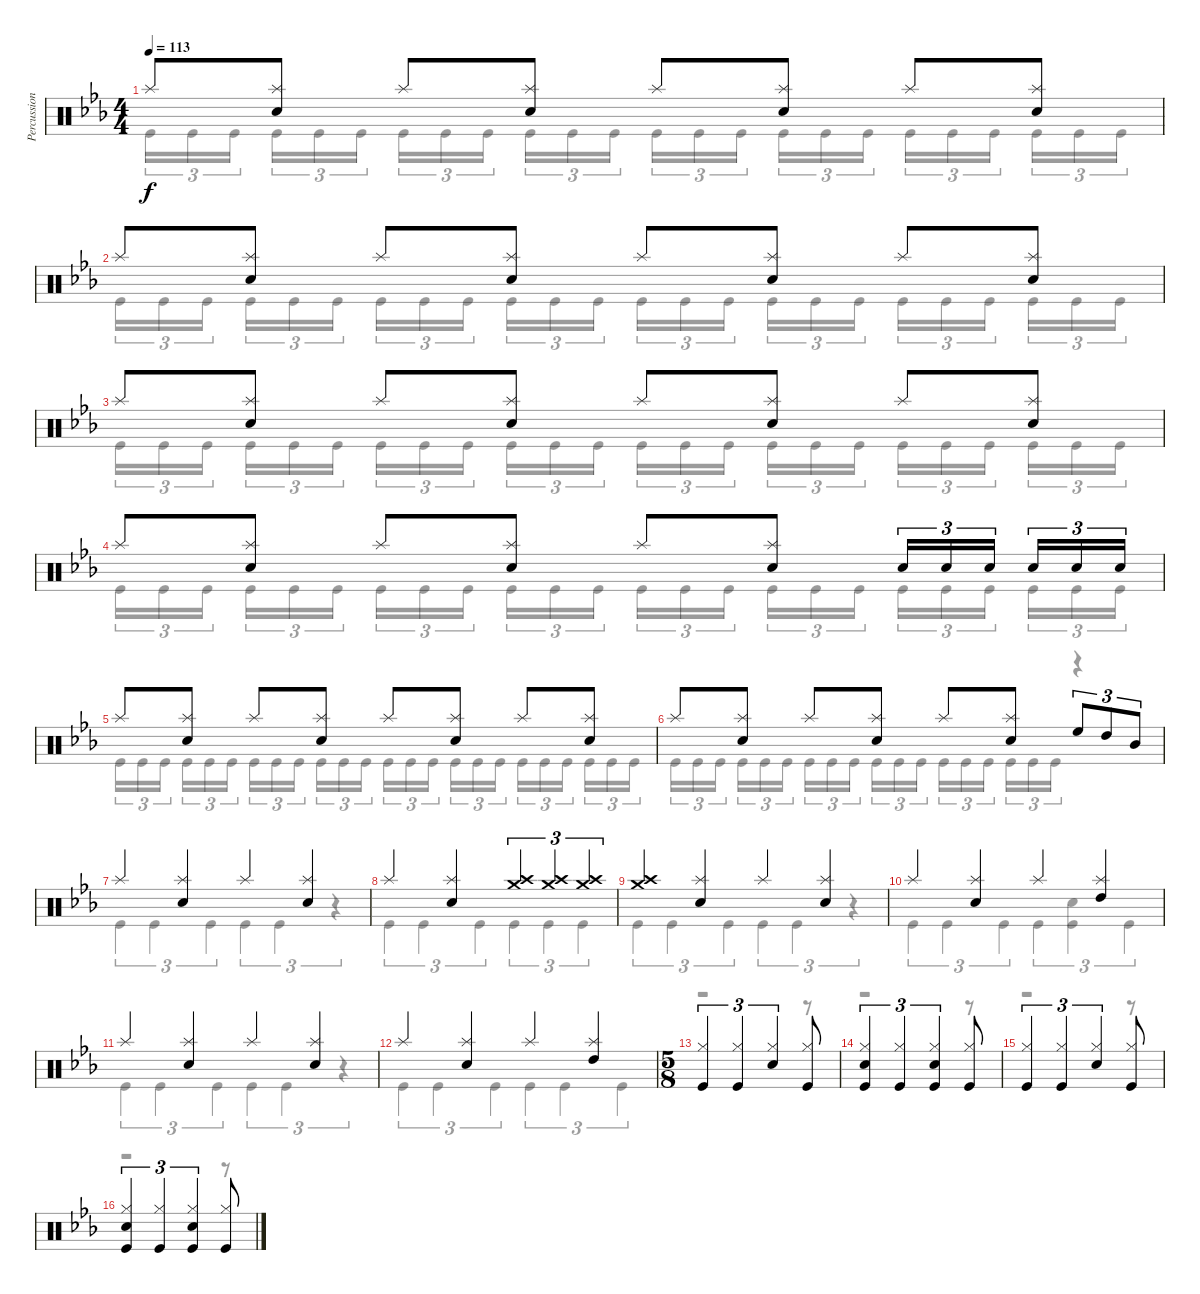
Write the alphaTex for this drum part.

\track ("Percussion" "Percussion") {instrument percussion}
\staff {score}
\articulation defaults
\voice
\ts (4 4)
\tempo 113
\clef neutral
\ks cminor "Splash (hit)".8{dy f}
("Splash (hit)" "Snare (hit) 2").8 "Splash (hit)".8 ("Splash (hit)" "Snare (hit) 2").8 "Splash (hit)".8 ("Splash (hit)" "Snare (hit) 2").8 "Splash (hit)".8 ("Splash (hit)" "Snare (hit) 2").8 |
"Splash (hit)".8 ("Splash (hit)" "Snare (hit) 2").8 "Splash (hit)".8 ("Splash (hit)" "Snare (hit) 2").8 "Splash (hit)".8 ("Splash (hit)" "Snare (hit) 2").8 "Splash (hit)".8 ("Splash (hit)" "Snare (hit) 2").8 |
"Splash (hit)".8 ("Splash (hit)" "Snare (hit) 2").8 "Splash (hit)".8 ("Splash (hit)" "Snare (hit) 2").8 "Splash (hit)".8 ("Splash (hit)" "Snare (hit) 2").8 "Splash (hit)".8 ("Splash (hit)" "Snare (hit) 2").8 |
"Splash (hit)".8 ("Splash (hit)" "Snare (hit) 2").8 "Splash (hit)".8 ("Splash (hit)" "Snare (hit) 2").8 "Splash (hit)".8 ("Splash (hit)" "Snare (hit) 2").8 "Snare (hit) 2".16{tu (3 2)} "Snare (hit) 2".16{tu (3 2)} "Snare (hit) 2".16{tu (3 2) beam splitsecondary} "Snare (hit) 2".16{tu (3 2)} "Snare (hit) 2".16{tu (3 2)} "Snare (hit) 2".16{tu (3 2)} |
"Splash (hit)".8 ("Splash (hit)" "Snare (hit) 2").8 "Splash (hit)".8 ("Splash (hit)" "Snare (hit) 2").8 "Splash (hit)".8 ("Splash (hit)" "Snare (hit) 2").8 "Splash (hit)".8 ("Splash (hit)" "Snare (hit) 2").8 |
"Splash (hit)".8 ("Splash (hit)" "Snare (hit) 2").8 "Splash (hit)".8 ("Splash (hit)" "Snare (hit) 2").8 "Splash (hit)".8 ("Splash (hit)" "Snare (hit) 2").8 "High Floor Tom (hit)".8{tu (3 2)} "High Tom (hit)".8{tu (3 2)} "Mid Tom (hit)".8{tu (3 2)} |
"Splash (hit)".4 ("Splash (hit)" "Snare (hit) 2").4 "Splash (hit)".4 ("Splash (hit)" "Snare (hit) 2").4 |
"Splash (hit)".4 ("Splash (hit)" "Snare (hit) 2").4 ("Crash medium (hit)" "Crash high (hit)").4{tu (3 2)} ("Crash medium (hit)" "Crash high (hit)").4{tu (3 2)} ("Crash medium (hit)" "Crash high (hit)").4{tu (3 2)} |
("Crash medium (hit)" "Crash high (hit)").4 ("Splash (hit)" "Snare (hit) 2").4 "Splash (hit)".4 ("Splash (hit)" "Snare (hit) 2").4 |
"Splash (hit)".4 ("Splash (hit)" "Snare (hit) 2").4 "Splash (hit)".4 ("Splash (hit)" "High Tom (hit)").4 |
"Splash (hit)".4 ("Splash (hit)" "Snare (hit) 2").4 "Splash (hit)".4 ("Splash (hit)" "Snare (hit) 2").4 |
"Splash (hit)".4 ("Splash (hit)" "Snare (hit) 2").4 "Splash (hit)".4 ("Splash (hit)" "High Tom (hit)").4 |
\ts (5 8)
("Hi-Hat (closed)" "Kick (hit)").4{tu (3 2)} ("Hi-Hat (closed)" "Kick (hit)").4{tu (3 2)} ("Hi-Hat (closed)" "Snare (hit) 2").4{tu (3 2)} ("Hi-Hat (closed)" "Kick (hit)").8 |
("Hi-Hat (closed)" "Snare (hit) 2" "Kick (hit)").4{tu (3 2)} ("Hi-Hat (closed)" "Kick (hit)").4{tu (3 2)} ("Hi-Hat (closed)" "Snare (hit) 2" "Kick (hit)").4{tu (3 2)} ("Hi-Hat (closed)" "Kick (hit)").8 |
("Hi-Hat (closed)" "Kick (hit)").4{tu (3 2)} ("Hi-Hat (closed)" "Kick (hit)").4{tu (3 2)} ("Hi-Hat (closed)" "Snare (hit) 2").4{tu (3 2)} ("Hi-Hat (closed)" "Kick (hit)").8 |
("Hi-Hat (closed)" "Snare (hit) 2" "Kick (hit)").4{tu (3 2)} ("Hi-Hat (closed)" "Kick (hit)").4{tu (3 2)} ("Hi-Hat (closed)" "Snare (hit) 2" "Kick (hit)").4{tu (3 2)} ("Hi-Hat (closed)" "Kick (hit)").8
\voice
\clef neutral
\ottava regular
\simile none
\ks cminor "Kick (hit)".16{tu (3 2) dy f} "Kick (hit)".16{tu (3 2)} "Kick (hit)".16{tu (3 2) beam splitsecondary} "Kick (hit)".16{tu (3 2)} "Kick (hit)".16{tu (3 2)} "Kick (hit)".16{tu (3 2)} "Kick (hit)".16{tu (3 2)} "Kick (hit)".16{tu (3 2)} "Kick (hit)".16{tu (3 2) beam splitsecondary} "Kick (hit)".16{tu (3 2)} "Kick (hit)".16{tu (3 2)} "Kick (hit)".16{tu (3 2)} "Kick (hit)".16{tu (3 2)} "Kick (hit)".16{tu (3 2)} "Kick (hit)".16{tu (3 2) beam splitsecondary} "Kick (hit)".16{tu (3 2)} "Kick (hit)".16{tu (3 2)} "Kick (hit)".16{tu (3 2)} "Kick (hit)".16{tu (3 2)} "Kick (hit)".16{tu (3 2)} "Kick (hit)".16{tu (3 2) beam splitsecondary} "Kick (hit)".16{tu (3 2)} "Kick (hit)".16{tu (3 2)} "Kick (hit)".16{tu (3 2)}
|
"Kick (hit)".16{tu (3 2)} "Kick (hit)".16{tu (3 2)} "Kick (hit)".16{tu (3 2) beam splitsecondary} "Kick (hit)".16{tu (3 2)} "Kick (hit)".16{tu (3 2)} "Kick (hit)".16{tu (3 2)} "Kick (hit)".16{tu (3 2)} "Kick (hit)".16{tu (3 2)} "Kick (hit)".16{tu (3 2) beam splitsecondary} "Kick (hit)".16{tu (3 2)} "Kick (hit)".16{tu (3 2)} "Kick (hit)".16{tu (3 2)} "Kick (hit)".16{tu (3 2)} "Kick (hit)".16{tu (3 2)} "Kick (hit)".16{tu (3 2) beam splitsecondary} "Kick (hit)".16{tu (3 2)} "Kick (hit)".16{tu (3 2)} "Kick (hit)".16{tu (3 2)} "Kick (hit)".16{tu (3 2)} "Kick (hit)".16{tu (3 2)} "Kick (hit)".16{tu (3 2) beam splitsecondary} "Kick (hit)".16{tu (3 2)} "Kick (hit)".16{tu (3 2)} "Kick (hit)".16{tu (3 2)} |
"Kick (hit)".16{tu (3 2)} "Kick (hit)".16{tu (3 2)} "Kick (hit)".16{tu (3 2) beam splitsecondary} "Kick (hit)".16{tu (3 2)} "Kick (hit)".16{tu (3 2)} "Kick (hit)".16{tu (3 2)} "Kick (hit)".16{tu (3 2)} "Kick (hit)".16{tu (3 2)} "Kick (hit)".16{tu (3 2) beam splitsecondary} "Kick (hit)".16{tu (3 2)} "Kick (hit)".16{tu (3 2)} "Kick (hit)".16{tu (3 2)} "Kick (hit)".16{tu (3 2)} "Kick (hit)".16{tu (3 2)} "Kick (hit)".16{tu (3 2) beam splitsecondary} "Kick (hit)".16{tu (3 2)} "Kick (hit)".16{tu (3 2)} "Kick (hit)".16{tu (3 2)} "Kick (hit)".16{tu (3 2)} "Kick (hit)".16{tu (3 2)} "Kick (hit)".16{tu (3 2) beam splitsecondary} "Kick (hit)".16{tu (3 2)} "Kick (hit)".16{tu (3 2)} "Kick (hit)".16{tu (3 2)} |
"Kick (hit)".16{tu (3 2)} "Kick (hit)".16{tu (3 2)} "Kick (hit)".16{tu (3 2) beam splitsecondary} "Kick (hit)".16{tu (3 2)} "Kick (hit)".16{tu (3 2)} "Kick (hit)".16{tu (3 2)} "Kick (hit)".16{tu (3 2)} "Kick (hit)".16{tu (3 2)} "Kick (hit)".16{tu (3 2) beam splitsecondary} "Kick (hit)".16{tu (3 2)} "Kick (hit)".16{tu (3 2)} "Kick (hit)".16{tu (3 2)} "Kick (hit)".16{tu (3 2)} "Kick (hit)".16{tu (3 2)} "Kick (hit)".16{tu (3 2) beam splitsecondary} "Kick (hit)".16{tu (3 2)} "Kick (hit)".16{tu (3 2)} "Kick (hit)".16{tu (3 2)} "Kick (hit)".16{tu (3 2)} "Kick (hit)".16{tu (3 2)} "Kick (hit)".16{tu (3 2) beam splitsecondary} "Kick (hit)".16{tu (3 2)} "Kick (hit)".16{tu (3 2)} "Kick (hit)".16{tu (3 2)} |
"Kick (hit)".16{tu (3 2)} "Kick (hit)".16{tu (3 2)} "Kick (hit)".16{tu (3 2) beam splitsecondary} "Kick (hit)".16{tu (3 2)} "Kick (hit)".16{tu (3 2)} "Kick (hit)".16{tu (3 2)} "Kick (hit)".16{tu (3 2)} "Kick (hit)".16{tu (3 2)} "Kick (hit)".16{tu (3 2) beam splitsecondary} "Kick (hit)".16{tu (3 2)} "Kick (hit)".16{tu (3 2)} "Kick (hit)".16{tu (3 2)} "Kick (hit)".16{tu (3 2)} "Kick (hit)".16{tu (3 2)} "Kick (hit)".16{tu (3 2) beam splitsecondary} "Kick (hit)".16{tu (3 2)} "Kick (hit)".16{tu (3 2)} "Kick (hit)".16{tu (3 2)} "Kick (hit)".16{tu (3 2)} "Kick (hit)".16{tu (3 2)} "Kick (hit)".16{tu (3 2) beam splitsecondary} "Kick (hit)".16{tu (3 2)} "Kick (hit)".16{tu (3 2)} "Kick (hit)".16{tu (3 2)} |
"Kick (hit)".16{tu (3 2)} "Kick (hit)".16{tu (3 2)} "Kick (hit)".16{tu (3 2) beam splitsecondary} "Kick (hit)".16{tu (3 2)} "Kick (hit)".16{tu (3 2)} "Kick (hit)".16{tu (3 2)} "Kick (hit)".16{tu (3 2)} "Kick (hit)".16{tu (3 2)} "Kick (hit)".16{tu (3 2) beam splitsecondary} "Kick (hit)".16{tu (3 2)} "Kick (hit)".16{tu (3 2)} "Kick (hit)".16{tu (3 2)} "Kick (hit)".16{tu (3 2)} "Kick (hit)".16{tu (3 2)} "Kick (hit)".16{tu (3 2) beam splitsecondary} "Kick (hit)".16{tu (3 2)} "Kick (hit)".16{tu (3 2)} "Kick (hit)".16{tu (3 2)} r.4 |
"Kick (hit)".4{tu (3 2)} "Kick (hit)".4{tu (3 2)} "Kick (hit)".4{tu (3 2)} "Kick (hit)".4{tu (3 2)} "Kick (hit)".4{tu (3 2)} r.4{tu (3 2)} |
"Kick (hit)".4{tu (3 2)} "Kick (hit)".4{tu (3 2)} "Kick (hit)".4{tu (3 2)} "Kick (hit)".4{tu (3 2)} "Kick (hit)".4{tu (3 2)} "Kick (hit)".4{tu (3 2)} |
"Kick (hit)".4{tu (3 2)} "Kick (hit)".4{tu (3 2)} "Kick (hit)".4{tu (3 2)} "Kick (hit)".4{tu (3 2)} "Kick (hit)".4{tu (3 2)} r.4{tu (3 2)} |
"Kick (hit)".4{tu (3 2)} "Kick (hit)".4{tu (3 2)} "Kick (hit)".4{tu (3 2)} "Kick (hit)".4{tu (3 2)} ("Snare (hit) 2" "Kick (hit)").4{tu (3 2)} "Kick (hit)".4{tu (3 2)} |
"Kick (hit)".4{tu (3 2)} "Kick (hit)".4{tu (3 2)} "Kick (hit)".4{tu (3 2)} "Kick (hit)".4{tu (3 2)} "Kick (hit)".4{tu (3 2)} r.4{tu (3 2)} |
"Kick (hit)".4{tu (3 2)} "Kick (hit)".4{tu (3 2)} "Kick (hit)".4{tu (3 2)} "Kick (hit)".4{tu (3 2)} "Kick (hit)".4{tu (3 2)} "Kick (hit)".4{tu (3 2)} |
r.2 r.8 |
r.2 r.8 |
r.2 r.8 |
r.2 r.8
